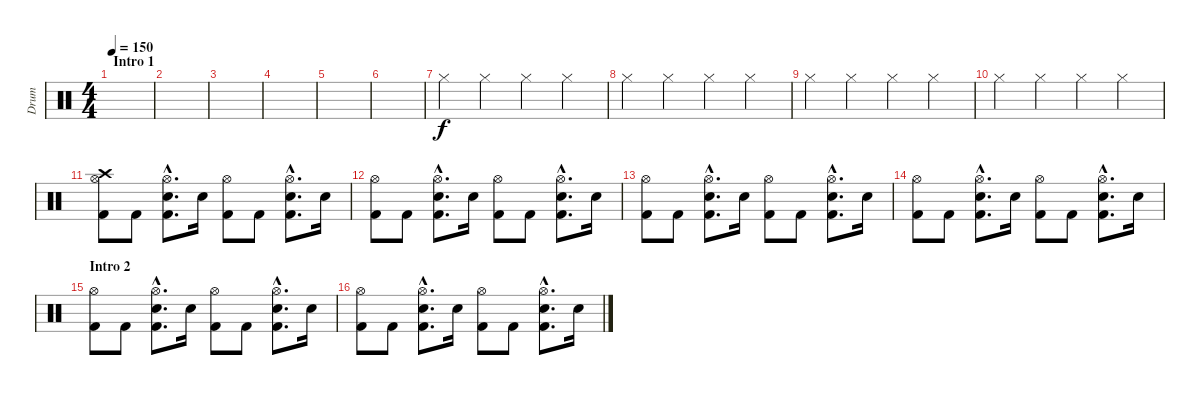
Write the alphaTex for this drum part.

\track ("Drum" "Drum") {instrument percussion}
\staff {score}
\articulation defaults
\ts (4 4)
\section ("" "Intro 1")
\tempo 150
\clef neutral
\ks c
|
|
|
|
|
|
"Hi-Hat (closed)".4 "Hi-Hat (closed)".4 "Hi-Hat (closed)".4 "Hi-Hat (closed)".4 |
"Hi-Hat (closed)".4 "Hi-Hat (closed)".4 "Hi-Hat (closed)".4 "Hi-Hat (closed)".4 |
"Hi-Hat (closed)".4 "Hi-Hat (closed)".4 "Hi-Hat (closed)".4 "Hi-Hat (closed)".4 |
"Hi-Hat (closed)".4 "Hi-Hat (closed)".4 "Hi-Hat (closed)".4 "Hi-Hat (closed)".4 |
("Crash high (hit)" "Hi-Hat (open)" "Kick (hit) 2").8{dy f} "Kick (hit) 2".8 ("Hi-Hat (open)"{hac} "Snare (hit) 2"{hac} "Kick (hit) 2"{hac}).8{d} "Snare (hit) 2".16 ("Hi-Hat (open)" "Kick (hit) 2").8 "Kick (hit) 2".8 ("Hi-Hat (open)"{hac} "Snare (hit) 2"{hac} "Kick (hit) 2"{hac}).8{d} "Snare (hit) 2".16 |
("Hi-Hat (open)" "Kick (hit) 2").8 "Kick (hit) 2".8 ("Hi-Hat (open)"{hac} "Snare (hit) 2"{hac} "Kick (hit) 2"{hac}).8{d} "Snare (hit) 2".16 ("Hi-Hat (open)" "Kick (hit) 2").8 "Kick (hit) 2".8 ("Hi-Hat (open)"{hac} "Snare (hit) 2"{hac} "Kick (hit) 2"{hac}).8{d} "Snare (hit) 2".16 |
("Hi-Hat (open)" "Kick (hit) 2").8 "Kick (hit) 2".8 ("Hi-Hat (open)"{hac} "Snare (hit) 2"{hac} "Kick (hit) 2"{hac}).8{d} "Snare (hit) 2".16 ("Hi-Hat (open)" "Kick (hit) 2").8 "Kick (hit) 2".8 ("Hi-Hat (open)"{hac} "Snare (hit) 2"{hac} "Kick (hit) 2"{hac}).8{d} "Snare (hit) 2".16 |
("Hi-Hat (open)" "Kick (hit) 2").8 "Kick (hit) 2".8 ("Hi-Hat (open)"{hac} "Snare (hit) 2"{hac} "Kick (hit) 2"{hac}).8{d} "Snare (hit) 2".16 ("Hi-Hat (open)" "Kick (hit) 2").8 "Kick (hit) 2".8 ("Hi-Hat (open)"{hac} "Snare (hit) 2"{hac} "Kick (hit) 2"{hac}).8{d} "Snare (hit) 2".16 |
\section ("" "Intro 2")
("Hi-Hat (open)" "Kick (hit) 2").8 "Kick (hit) 2".8 ("Hi-Hat (open)"{hac} "Snare (hit) 2"{hac} "Kick (hit) 2"{hac}).8{d} "Snare (hit) 2".16 ("Hi-Hat (open)" "Kick (hit) 2").8 "Kick (hit) 2".8 ("Hi-Hat (open)"{hac} "Snare (hit) 2"{hac} "Kick (hit) 2"{hac}).8{d} "Snare (hit) 2".16 |
("Hi-Hat (open)" "Kick (hit) 2").8 "Kick (hit) 2".8 ("Hi-Hat (open)"{hac} "Snare (hit) 2"{hac} "Kick (hit) 2"{hac}).8{d} "Snare (hit) 2".16 ("Hi-Hat (open)" "Kick (hit) 2").8 "Kick (hit) 2".8 ("Hi-Hat (open)"{hac} "Snare (hit) 2"{hac} "Kick (hit) 2"{hac}).8{d} "Snare (hit) 2".16
